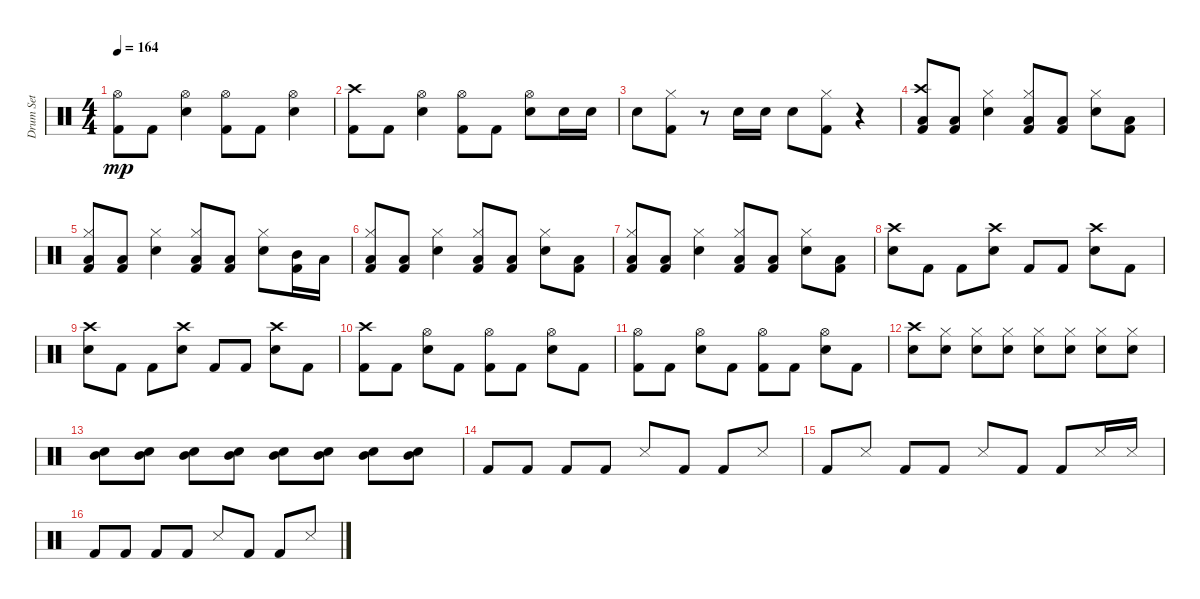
\track ("Drum Set" "Drum Set") {instrument percussion}
\staff {score}
\articulation defaults
\ts (4 4)
\tempo 164
\clef neutral
\ks c
("Kick (hit) 2" "Hi-Hat (open)").8{dy mp} "Kick (hit) 2".8 ("Snare (hit) 2" "Hi-Hat (open)").4 ("Kick (hit) 2" "Hi-Hat (open)").8 "Kick (hit) 2".8 ("Snare (hit) 2" "Hi-Hat (open)").4 |
("Kick (hit) 2" "Crash high (hit)").8 "Kick (hit) 2".8 ("Snare (hit) 2" "Hi-Hat (open)").4 ("Kick (hit) 2" "Hi-Hat (open)").8 "Kick (hit) 2".8 ("Snare (hit) 2" "Hi-Hat (open)").8 "Snare (hit) 2".16 "Snare (hit) 2".16 |
"Snare (hit) 2".8 ("Kick (hit) 2" "Hi-Hat (closed)").8 r.8 "Snare (hit) 2".16 "Snare (hit) 2".16 "Snare (hit) 2".8 ("Kick (hit) 2" "Hi-Hat (closed)").8 r.4 |
("Kick (hit) 2" "Low Tom (hit)" "Crash high (hit)").8 ("Kick (hit) 2" "Low Tom (hit)").8 ("Snare (hit) 2" "Hi-Hat (closed)").4 ("Kick (hit) 2" "Low Tom (hit)" "Hi-Hat (closed)").8 ("Kick (hit) 2" "Low Tom (hit)").8 ("Snare (hit) 2" "Hi-Hat (closed)").8 ("Kick (hit) 2" "Low Tom (hit)").8 |
("Kick (hit) 2" "Low Tom (hit)" "Hi-Hat (closed)").8 ("Kick (hit) 2" "Low Tom (hit)").8 ("Snare (hit) 2" "Hi-Hat (closed)").4 ("Kick (hit) 2" "Low Tom (hit)" "Hi-Hat (closed)").8 ("Kick (hit) 2" "Low Tom (hit)").8 ("Snare (hit) 2" "Hi-Hat (closed)").8 ("Kick (hit) 2" "Mid Tom (hit)").16 "Low Tom (hit)".16 |
("Kick (hit) 2" "Low Tom (hit)" "Hi-Hat (closed)").8 ("Kick (hit) 2" "Low Tom (hit)").8 ("Snare (hit) 2" "Hi-Hat (closed)").4 ("Kick (hit) 2" "Low Tom (hit)" "Hi-Hat (closed)").8 ("Kick (hit) 2" "Low Tom (hit)").8 ("Snare (hit) 2" "Hi-Hat (closed)").8 ("Kick (hit) 2" "Low Tom (hit)").8 |
("Kick (hit) 2" "Low Tom (hit)" "Hi-Hat (closed)").8 ("Kick (hit) 2" "Low Tom (hit)").8 ("Snare (hit) 2" "Hi-Hat (closed)").4 ("Kick (hit) 2" "Low Tom (hit)" "Hi-Hat (closed)").8 ("Kick (hit) 2" "Low Tom (hit)").8 ("Snare (hit) 2" "Hi-Hat (closed)").8 ("Kick (hit) 2" "Low Tom (hit)").8 |
("Snare (hit) 2" "Crash high (hit)").8 "Kick (hit) 2".8 "Kick (hit) 2".8 ("Snare (hit) 2" "Crash high (hit)").8 "Kick (hit) 2".8 "Kick (hit) 2".8 ("Snare (hit) 2" "Crash high (hit)").8 "Kick (hit) 2".8 |
("Snare (hit) 2" "Crash high (hit)").8 "Kick (hit) 2".8 "Kick (hit) 2".8 ("Snare (hit) 2" "Crash high (hit)").8 "Kick (hit) 2".8 "Kick (hit) 2".8 ("Snare (hit) 2" "Crash high (hit)").8 "Kick (hit) 2".8 |
("Kick (hit) 2" "Crash high (hit)").8 "Kick (hit) 2".8 ("Snare (hit) 2" "Hi-Hat (open)").8 "Kick (hit) 2".8 ("Kick (hit) 2" "Hi-Hat (open)").8 "Kick (hit) 2".8 ("Snare (hit) 2" "Hi-Hat (open)").8 "Kick (hit) 2".8 |
("Kick (hit) 2" "Hi-Hat (open)").8 "Kick (hit) 2".8 ("Snare (hit) 2" "Hi-Hat (open)").8 "Kick (hit) 2".8 ("Kick (hit) 2" "Hi-Hat (open)").8 "Kick (hit) 2".8 ("Snare (hit) 2" "Hi-Hat (open)").8 "Kick (hit) 2".8 |
("Snare (hit) 2" "Crash high (hit)").8 ("Snare (hit) 2" "Hi-Hat (closed)").8 ("Snare (hit) 2" "Hi-Hat (closed)").8 ("Snare (hit) 2" "Hi-Hat (closed)").8 ("Snare (hit) 2" "Hi-Hat (closed)").8 ("Snare (hit) 2" "Hi-Hat (closed)").8 ("Snare (hit) 2" "Hi-Hat (closed)").8 ("Snare (hit) 2" "Hi-Hat (closed)").8 |
("Snare (hit) 2" "Mid Tom (hit)").8 ("Snare (hit) 2" "Mid Tom (hit)").8 ("Snare (hit) 2" "Mid Tom (hit)").8 ("Snare (hit) 2" "Mid Tom (hit)").8 ("Snare (hit) 2" "Mid Tom (hit)").8 ("Snare (hit) 2" "Mid Tom (hit)").8 ("Snare (hit) 2" "Mid Tom (hit)").8 ("Snare (hit) 2" "Mid Tom (hit)").8 |
"Kick (hit) 2".8 "Kick (hit) 2".8 "Kick (hit) 2".8 "Kick (hit) 2".8 "Snare (side stick) 3".8 "Kick (hit) 2".8 "Kick (hit) 2".8 "Snare (side stick) 3".8 |
"Kick (hit) 2".8 "Snare (side stick) 3".8 "Kick (hit) 2".8 "Kick (hit) 2".8 "Snare (side stick) 3".8 "Kick (hit) 2".8 "Kick (hit) 2".8 "Snare (side stick) 3".16 "Snare (side stick) 3".16 |
"Kick (hit) 2".8 "Kick (hit) 2".8 "Kick (hit) 2".8 "Kick (hit) 2".8 "Snare (side stick) 3".8 "Kick (hit) 2".8 "Kick (hit) 2".8 "Snare (side stick) 3".8
